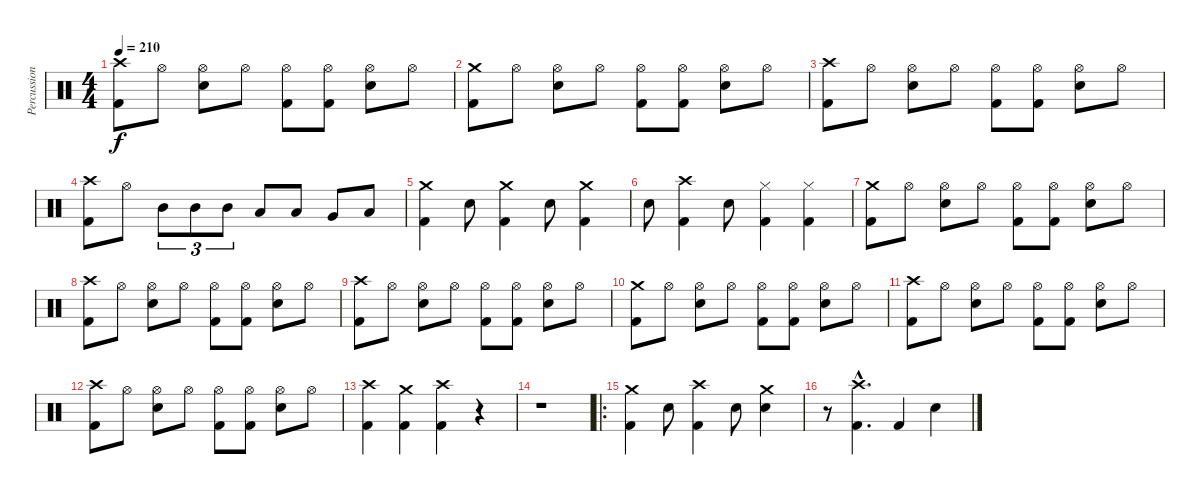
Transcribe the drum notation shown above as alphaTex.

\track ("Percussion" "Percussion") {instrument percussion}
\staff {score}
\articulation defaults
\ts (4 4)
\tempo 210
\clef neutral
\ks c
("Crash high (hit)" "Kick (hit) 2").8{dy f} "Hi-Hat (open)".8 ("Hi-Hat (open)" "Snare (hit) 2").8 "Hi-Hat (open)".8 ("Hi-Hat (open)" "Kick (hit) 2").8 ("Hi-Hat (open)" "Kick (hit) 2").8 ("Hi-Hat (open)" "Snare (hit) 2").8 "Hi-Hat (open)".8 |
("Crash medium (hit)" "Kick (hit) 2").8 "Hi-Hat (open)".8 ("Hi-Hat (open)" "Snare (hit) 2").8 "Hi-Hat (open)".8 ("Hi-Hat (open)" "Kick (hit) 2").8 ("Hi-Hat (open)" "Kick (hit) 2").8 ("Hi-Hat (open)" "Snare (hit) 2").8 "Hi-Hat (open)".8 |
("Crash high (hit)" "Kick (hit) 2").8 "Hi-Hat (open)".8 ("Hi-Hat (open)" "Snare (hit) 2").8 "Hi-Hat (open)".8 ("Hi-Hat (open)" "Kick (hit) 2").8 ("Hi-Hat (open)" "Kick (hit) 2").8 ("Hi-Hat (open)" "Snare (hit) 2").8 "Hi-Hat (open)".8 |
("Crash high (hit)" "Kick (hit) 2").8 "Hi-Hat (open)".8 "Mid Tom (hit)".8{tu (3 2)} "Mid Tom (hit)".8{tu (3 2)} "Mid Tom (hit)".8{tu (3 2)} "Low Tom (hit)".8 "Low Tom (hit)".8 "Very Low Tom (hit)".8 "Low Floor Tom (hit)".8 |
("Crash medium (hit)" "Kick (hit) 2").4 "Snare (hit) 2".8 ("Crash medium (hit)" "Kick (hit) 2").4 "Snare (hit) 2".8 ("Crash medium (hit)" "Kick (hit) 2").4 |
"Snare (hit) 2".8 ("Crash high (hit)" "Kick (hit) 2").4 "Snare (hit) 2".8 ("Hi-Hat (closed)" "Kick (hit) 2").4 ("Hi-Hat (closed)" "Kick (hit) 2").4 |
("Crash medium (hit)" "Kick (hit) 2").8 "Hi-Hat (open)".8 ("Hi-Hat (open)" "Snare (hit) 2").8 "Hi-Hat (open)".8 ("Hi-Hat (open)" "Kick (hit) 2").8 ("Hi-Hat (open)" "Kick (hit) 2").8 ("Hi-Hat (open)" "Snare (hit) 2").8 "Hi-Hat (open)".8 |
("Crash high (hit)" "Kick (hit) 2").8 "Hi-Hat (open)".8 ("Hi-Hat (open)" "Snare (hit) 2").8 "Hi-Hat (open)".8 ("Hi-Hat (open)" "Kick (hit) 2").8 ("Hi-Hat (open)" "Kick (hit) 2").8 ("Hi-Hat (open)" "Snare (hit) 2").8 "Hi-Hat (open)".8 |
("Crash high (hit)" "Kick (hit) 2").8 "Hi-Hat (open)".8 ("Hi-Hat (open)" "Snare (hit) 2").8 "Hi-Hat (open)".8 ("Hi-Hat (open)" "Kick (hit) 2").8 ("Hi-Hat (open)" "Kick (hit) 2").8 ("Hi-Hat (open)" "Snare (hit) 2").8 "Hi-Hat (open)".8 |
("Crash medium (hit)" "Kick (hit) 2").8 "Hi-Hat (open)".8 ("Hi-Hat (open)" "Snare (hit) 2").8 "Hi-Hat (open)".8 ("Hi-Hat (open)" "Kick (hit) 2").8 ("Hi-Hat (open)" "Kick (hit) 2").8 ("Hi-Hat (open)" "Snare (hit) 2").8 "Hi-Hat (open)".8 |
("Crash high (hit)" "Kick (hit) 2").8 "Hi-Hat (open)".8 ("Hi-Hat (open)" "Snare (hit) 2").8 "Hi-Hat (open)".8 ("Hi-Hat (open)" "Kick (hit) 2").8 ("Hi-Hat (open)" "Kick (hit) 2").8 ("Hi-Hat (open)" "Snare (hit) 2").8 "Hi-Hat (open)".8 |
("Crash high (hit)" "Kick (hit) 2").8 "Hi-Hat (open)".8 ("Hi-Hat (open)" "Snare (hit) 2").8 "Hi-Hat (open)".8 ("Hi-Hat (open)" "Kick (hit) 2").8 ("Hi-Hat (open)" "Kick (hit) 2").8 ("Hi-Hat (open)" "Snare (hit) 2").8 "Hi-Hat (open)".8 |
("Crash high (hit)" "Kick (hit) 2").4 ("Crash medium (hit)" "Kick (hit) 2").4 ("Crash high (hit)" "Kick (hit) 2").4 r.4 |
r.1 |
\ro
("Crash medium (hit)" "Kick (hit) 2").4 "Snare (hit) 2".8 ("Crash high (hit)" "Kick (hit) 2").4 "Snare (hit) 2".8 ("Crash medium (hit)" "Snare (hit) 2").4 |
r.8 ("Crash high (hit)"{hac} "Kick (hit) 2"{hac}).4{d} "Kick (hit) 2".4 "Snare (hit) 2".4
